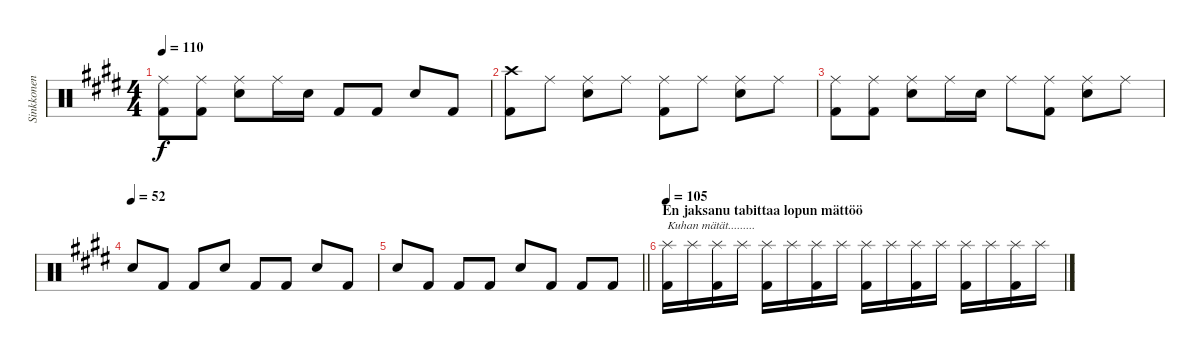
\track ("Sinkkonen" "Sinkkonen") {instrument percussion}
\staff {score}
\articulation defaults
\ts (4 4)
\tempo 110
\clef neutral
\ks c#minor
("Ride (middle)" "Kick (hit) 2").8{dy f} ("Ride (middle)" "Kick (hit) 2").8 ("Ride (middle)" "Snare (hit) 2").8 "Ride (middle)".16 "Snare (hit) 2".16 "Kick (hit) 2".8 "Kick (hit) 2".8 "Snare (hit) 2".8 "Kick (hit) 2".8 |
("Crash high (hit)" "Kick (hit) 2").8 "Ride (middle)".8 ("Ride (middle)" "Snare (hit) 2").8 "Ride (middle)".8 ("Ride (middle)" "Kick (hit) 2").8 "Ride (middle)".8 ("Ride (middle)" "Snare (hit) 2").8 "Ride (middle)".8 |
("Ride (middle)" "Kick (hit) 2").8 ("Ride (middle)" "Kick (hit) 2").8 ("Ride (middle)" "Snare (hit) 2").8 "Ride (middle)".16 "Snare (hit) 2".16 "Ride (middle)".8 ("Ride (middle)" "Kick (hit) 2").8 ("Ride (middle)" "Snare (hit) 2").8 "Ride (middle)".8 |
\tempo (52)
"Snare (hit) 2".8 "Kick (hit) 2".8 "Kick (hit) 2".8 "Snare (hit) 2".8 "Kick (hit) 2".8 "Kick (hit) 2".8 "Snare (hit) 2".8 "Kick (hit) 2".8 |
\barLineRight lightlight "Snare (hit) 2".8 "Kick (hit) 2".8 "Kick (hit) 2".8 "Kick (hit) 2".8 "Snare (hit) 2".8 "Kick (hit) 2".8 "Kick (hit) 2".8 "Kick (hit) 2".8
|
\section ("" "En jaksanu tabittaa lopun mättöö")
\tempo 105
("Splash (hit)" "Kick (hit) 2").16{txt "Kuhan mätät........."} "Splash (hit)".16 ("Splash (hit)" "Kick (hit) 2").16 "Splash (hit)".16 ("Splash (hit)" "Kick (hit) 2").16 "Splash (hit)".16 ("Splash (hit)" "Kick (hit) 2").16 "Splash (hit)".16 ("Splash (hit)" "Kick (hit) 2").16 "Splash (hit)".16 ("Splash (hit)" "Kick (hit) 2").16 "Splash (hit)".16 ("Splash (hit)" "Kick (hit) 2").16 "Splash (hit)".16 ("Splash (hit)" "Kick (hit) 2").16 "Splash (hit)".16
